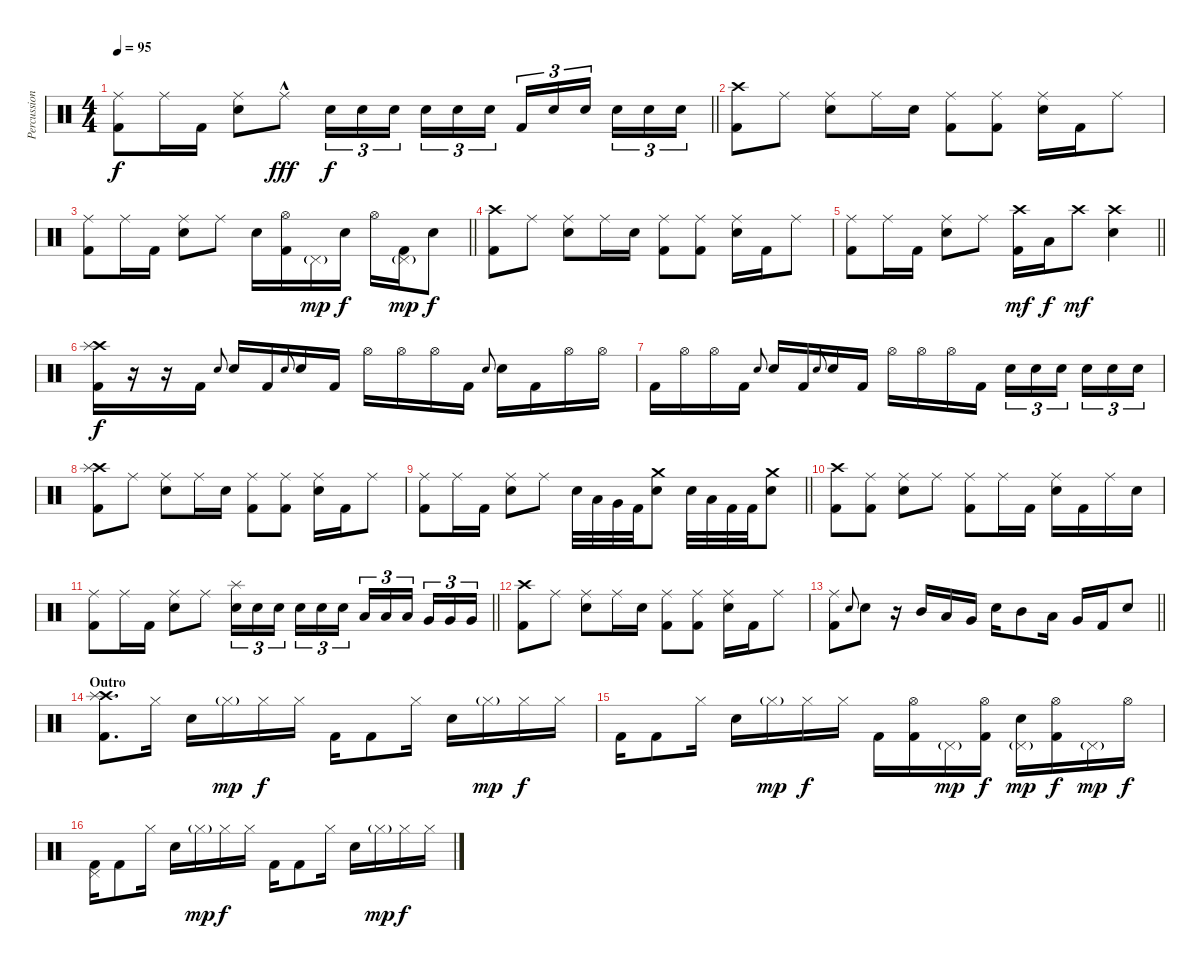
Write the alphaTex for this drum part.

\track ("Percussion" "Percussion") {instrument percussion}
\staff {score}
\articulation defaults
\ts (4 4)
\tempo 95
\clef neutral
\barLineRight lightlight
\ks c
("Ride (middle)" "Kick (hit) 2").8{dy f} "Ride (middle)".16 "Kick (hit) 2".16 ("Ride (middle)" "Electric Snare (hit)").8 "Ride (middle)"{hac}.8{dy fff} "Electric Snare (hit)".16{tu (3 2) dy f} "Electric Snare (hit)".16{tu (3 2)} "Electric Snare (hit)".16{tu (3 2) beam splitsecondary} "Electric Snare (hit)".16{tu (3 2)} "Electric Snare (hit)".16{tu (3 2)} "Electric Snare (hit)".16{tu (3 2)} "Kick (hit) 2".16{tu (3 2)} "Electric Snare (hit)".16{tu (3 2)} "Electric Snare (hit)".16{tu (3 2) beam splitsecondary} "Electric Snare (hit)".16{tu (3 2)} "Electric Snare (hit)".16{tu (3 2)} "Electric Snare (hit)".16{tu (3 2)} |
("Crash high (hit)" "Kick (hit) 2").8 "Ride (middle)".8 ("Ride (middle)" "Electric Snare (hit)").8 "Ride (middle)".16 "Electric Snare (hit)".16 ("Ride (middle)" "Kick (hit) 2").8 ("Ride (middle)" "Kick (hit) 2").8 ("Ride (middle)" "Electric Snare (hit)").16 "Kick (hit) 2".16 "Ride (middle)".8 |
\barLineRight lightlight
("Ride (middle)" "Kick (hit) 2").8 "Ride (middle)".16 "Kick (hit) 2".16 ("Ride (middle)" "Electric Snare (hit)").8 "Ride (middle)".8 "Electric Snare (hit)".16 ("Hi-Hat (open)" "Kick (hit) 2").16 "Pedal Hi-Hat (hit)"{g}.16{dy mp} "Electric Snare (hit)".16{dy f} "Hi-Hat (open)".16 ("Pedal Hi-Hat (hit)"{g} "Kick (hit) 2").16{dy mp} "Electric Snare (hit)".8{dy f} |
("Crash high (hit)" "Kick (hit) 2").8 "Ride (middle)".8 ("Ride (middle)" "Electric Snare (hit)").8 "Ride (middle)".16 "Electric Snare (hit)".16 ("Ride (middle)" "Kick (hit) 2").8 ("Ride (middle)" "Kick (hit) 2").8 ("Ride (middle)" "Electric Snare (hit)").16 "Kick (hit) 2".16 "Ride (middle)".8 |
\barLineRight lightlight
("Ride (middle)" "Kick (hit) 2").8 "Ride (middle)".16 "Kick (hit) 2".16 ("Ride (middle)" "Electric Snare (hit)").8 "Ride (middle)".8 ("Crash high (hit)" "Kick (hit) 2").16{dy mf} "Low Tom (hit)".16{dy f} "Crash high (hit)".8{dy mf} ("Crash high (hit)" "Electric Snare (hit)").4 |
("Crash high (hit)" "Splash (hit)" "Kick (hit) 2").16{dy f} r.16 r.16 "Kick (hit) 2".16 "Electric Snare (hit)".8{gr onbeat} "Electric Snare (hit)".16 "Kick (hit) 2".16 "Electric Snare (hit)".8{gr onbeat} "Electric Snare (hit)".16 "Kick (hit) 2".16 "Hi-Hat (open)".16 "Hi-Hat (open)".16 "Hi-Hat (open)".16 "Kick (hit) 2".16 "Electric Snare (hit)".8{gr onbeat} "Electric Snare (hit)".16 "Kick (hit) 2".16 "Hi-Hat (open)".16 "Hi-Hat (open)".16 |
"Kick (hit) 2".16 "Hi-Hat (open)".16 "Hi-Hat (open)".16 "Kick (hit) 2".16 "Electric Snare (hit)".8{gr onbeat} "Electric Snare (hit)".16 "Kick (hit) 2".16 "Electric Snare (hit)".8{gr onbeat} "Electric Snare (hit)".16 "Kick (hit) 2".16 "Hi-Hat (open)".16 "Hi-Hat (open)".16 "Hi-Hat (open)".16 "Kick (hit) 2".16 "Electric Snare (hit)".16{tu (3 2)} "Electric Snare (hit)".16{tu (3 2)} "Electric Snare (hit)".16{tu (3 2) beam splitsecondary} "Electric Snare (hit)".16{tu (3 2)} "Electric Snare (hit)".16{tu (3 2)} "Electric Snare (hit)".16{tu (3 2)} |
("Crash high (hit)" "Splash (hit)" "Kick (hit) 2").8 "Ride (middle)".8 ("Ride (middle)" "Electric Snare (hit)").8 "Ride (middle)".16 "Electric Snare (hit)".16 ("Ride (middle)" "Kick (hit) 2").8 ("Ride (middle)" "Kick (hit) 2").8 ("Ride (middle)" "Electric Snare (hit)").16 "Kick (hit) 2".16 "Ride (middle)".8 |
\barLineRight lightlight
("Ride (middle)" "Kick (hit) 2").8 "Ride (middle)".16 "Kick (hit) 2".16 ("Ride (middle)" "Electric Snare (hit)").8 "Ride (middle)".8 "Electric Snare (hit)".32 "Low Tom (hit)".32 "Very Low Tom (hit)".32 "Kick (hit) 2".32 ("Crash medium (hit)" "Electric Snare (hit)").8 "Electric Snare (hit)".32 "Low Tom (hit)".32 "Kick (hit) 2".32 "Kick (hit) 2".32 ("Crash medium (hit)" "Electric Snare (hit)").8 |
("Crash high (hit)" "Kick (hit) 2").8 ("Ride (middle)" "Kick (hit) 2").8 ("Ride (middle)" "Electric Snare (hit)").8 "Ride (middle)".8 ("Ride (middle)" "Kick (hit) 2").8 "Ride (middle)".16 "Kick (hit) 2".16 ("Ride (middle)" "Electric Snare (hit)").16 "Kick (hit) 2".16 "Ride (middle)".16 "Electric Snare (hit)".16 |
\barLineRight lightlight
("Ride (middle)" "Kick (hit) 2").8 "Ride (middle)".16 "Kick (hit) 2".16 ("Ride (middle)" "Electric Snare (hit)").8 "Ride (middle)".8 ("Splash (hit)" "Electric Snare (hit)").16{tu (3 2)} "Electric Snare (hit)".16{tu (3 2)} "Electric Snare (hit)".16{tu (3 2) beam splitsecondary} "Electric Snare (hit)".16{tu (3 2)} "Electric Snare (hit)".16{tu (3 2)} "Electric Snare (hit)".16{tu (3 2)} "Low Tom (hit)".16{tu (3 2)} "Low Tom (hit)".16{tu (3 2)} "Low Tom (hit)".16{tu (3 2) beam splitsecondary} "Very Low Tom (hit)".16{tu (3 2)} "Very Low Tom (hit)".16{tu (3 2)} "Very Low Tom (hit)".16{tu (3 2)} |
("Crash high (hit)" "Kick (hit) 2").8 "Ride (middle)".8 ("Ride (middle)" "Electric Snare (hit)").8 "Ride (middle)".16 "Electric Snare (hit)".16 ("Ride (middle)" "Kick (hit) 2").8 ("Ride (middle)" "Kick (hit) 2").8 ("Ride (middle)" "Electric Snare (hit)").16 "Kick (hit) 2".16 "Ride (middle)".8 |
\barLineRight lightlight
("Ride (middle)" "Kick (hit) 2").8 "Electric Snare (hit)".8{gr onbeat} "Electric Snare (hit)".8 r.16 "Mid Tom (hit)".16 "Low Tom (hit)".16 "Very Low Tom (hit)".16 "Electric Snare (hit)".16 "Mid Tom (hit)".8 "Low Tom (hit)".16 "Very Low Tom (hit)".16 "Kick (hit) 2".16 "Electric Snare (hit)".8 |
\section ("" "Outro")
("Crash high (hit)" "Splash (hit)" "Kick (hit) 2").8{d} "Hi-Hat (closed)".16 "Electric Snare (hit)".16 "Hi-Hat (closed)"{g}.16{dy mp} "Hi-Hat (closed)".16{dy f} "Hi-Hat (closed)".16 "Kick (hit) 2".16 "Kick (hit) 2".8 "Hi-Hat (closed)".16 "Electric Snare (hit)".16 "Hi-Hat (closed)"{g}.16{dy mp} "Hi-Hat (closed)".16{dy f} "Hi-Hat (closed)".16 |
"Kick (hit) 2".16 "Kick (hit) 2".8 "Hi-Hat (closed)".16 "Electric Snare (hit)".16 "Hi-Hat (closed)"{g}.16{dy mp} "Hi-Hat (closed)".16{dy f} "Hi-Hat (closed)".16 "Kick (hit) 2".16 ("Hi-Hat (open)" "Kick (hit) 2").16 "Pedal Hi-Hat (hit)"{g}.16{dy mp} ("Hi-Hat (open)" "Kick (hit) 2").16{dy f} ("Pedal Hi-Hat (hit)"{g} "Electric Snare (hit)").16{dy mp} ("Hi-Hat (open)" "Kick (hit) 2").16{dy f} "Pedal Hi-Hat (hit)"{g}.16{dy mp} "Hi-Hat (open)".16{dy f} |
("Pedal Hi-Hat (hit)" "Kick (hit) 2").16 "Kick (hit) 2".8 "Hi-Hat (closed)".16 "Electric Snare (hit)".16 "Hi-Hat (closed)"{g}.16{dy mp} "Hi-Hat (closed)".16{dy f} "Hi-Hat (closed)".16 "Kick (hit) 2".16 "Kick (hit) 2".8 "Hi-Hat (closed)".16 "Electric Snare (hit)".16 "Hi-Hat (closed)"{g}.16{dy mp} "Hi-Hat (closed)".16{dy f} "Hi-Hat (closed)".16
